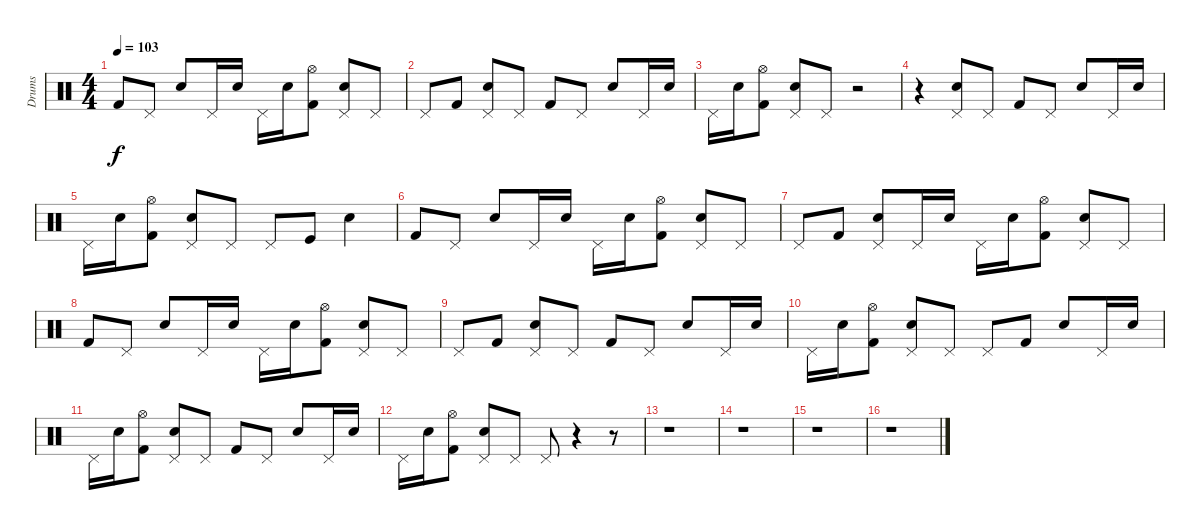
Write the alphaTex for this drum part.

\track ("Drums" "Drums") {instrument percussion}
\staff {score}
\articulation defaults
\ts (4 4)
\tempo 103
\clef neutral
\ks c "Kick (hit) 2".8{dy f} "Pedal Hi-Hat (hit)".8 "Electric Snare (hit)".8 "Pedal Hi-Hat (hit)".16 "Electric Snare (hit)".16 "Pedal Hi-Hat (hit)".16 "Electric Snare (hit)".16
("Hi-Hat (open)" "Kick (hit) 2").8 ("Pedal Hi-Hat (hit)" "Electric Snare (hit)").8 "Pedal Hi-Hat (hit)".8 |
"Pedal Hi-Hat (hit)".8 "Kick (hit) 2".8 ("Pedal Hi-Hat (hit)" "Electric Snare (hit)").8 "Pedal Hi-Hat (hit)".8 "Kick (hit) 2".8 "Pedal Hi-Hat (hit)".8 "Electric Snare (hit)".8 "Pedal Hi-Hat (hit)".16 "Electric Snare (hit)".16 |
"Pedal Hi-Hat (hit)".16 "Electric Snare (hit)".16 ("Hi-Hat (open)" "Kick (hit) 2").8 ("Pedal Hi-Hat (hit)" "Electric Snare (hit)").8 "Pedal Hi-Hat (hit)".8 r.2 |
r.4 ("Pedal Hi-Hat (hit)" "Electric Snare (hit)").8 "Pedal Hi-Hat (hit)".8 "Kick (hit) 2".8 "Pedal Hi-Hat (hit)".8 "Electric Snare (hit)".8 "Pedal Hi-Hat (hit)".16 "Electric Snare (hit)".16 |
"Pedal Hi-Hat (hit)".16 "Electric Snare (hit)".16 ("Hi-Hat (open)" "Kick (hit) 2").8 ("Pedal Hi-Hat (hit)" "Electric Snare (hit)").8 "Pedal Hi-Hat (hit)".8 "Pedal Hi-Hat (hit)".8 "Kick (hit)".8 "Electric Snare (hit)".4 |
"Kick (hit) 2".8 "Pedal Hi-Hat (hit)".8 "Electric Snare (hit)".8 "Pedal Hi-Hat (hit)".16 "Electric Snare (hit)".16 "Pedal Hi-Hat (hit)".16 "Electric Snare (hit)".16 ("Hi-Hat (open)" "Kick (hit) 2").8 ("Pedal Hi-Hat (hit)" "Electric Snare (hit)").8 "Pedal Hi-Hat (hit)".8 |
"Pedal Hi-Hat (hit)".8 "Kick (hit) 2".8 ("Pedal Hi-Hat (hit)" "Electric Snare (hit)").8 "Pedal Hi-Hat (hit)".16 "Electric Snare (hit)".16 "Pedal Hi-Hat (hit)".16 "Electric Snare (hit)".16 ("Hi-Hat (open)" "Kick (hit) 2").8 ("Pedal Hi-Hat (hit)" "Electric Snare (hit)").8 "Pedal Hi-Hat (hit)".8 |
"Kick (hit) 2".8 "Pedal Hi-Hat (hit)".8 "Electric Snare (hit)".8 "Pedal Hi-Hat (hit)".16 "Electric Snare (hit)".16 "Pedal Hi-Hat (hit)".16 "Electric Snare (hit)".16 ("Hi-Hat (open)" "Kick (hit) 2").8 ("Pedal Hi-Hat (hit)" "Electric Snare (hit)").8 "Pedal Hi-Hat (hit)".8 |
"Pedal Hi-Hat (hit)".8 "Kick (hit) 2".8 ("Pedal Hi-Hat (hit)" "Electric Snare (hit)").8 "Pedal Hi-Hat (hit)".8 "Kick (hit) 2".8 "Pedal Hi-Hat (hit)".8 "Electric Snare (hit)".8 "Pedal Hi-Hat (hit)".16 "Electric Snare (hit)".16 |
"Pedal Hi-Hat (hit)".16 "Electric Snare (hit)".16 ("Hi-Hat (open)" "Kick (hit) 2").8 ("Pedal Hi-Hat (hit)" "Electric Snare (hit)").8 "Pedal Hi-Hat (hit)".8 "Pedal Hi-Hat (hit)".8 "Kick (hit) 2".8 "Electric Snare (hit)".8 "Pedal Hi-Hat (hit)".16 "Electric Snare (hit)".16 |
"Pedal Hi-Hat (hit)".16 "Electric Snare (hit)".16 ("Hi-Hat (open)" "Kick (hit) 2").8 ("Pedal Hi-Hat (hit)" "Electric Snare (hit)").8 "Pedal Hi-Hat (hit)".8 "Kick (hit) 2".8 "Pedal Hi-Hat (hit)".8 "Electric Snare (hit)".8 "Pedal Hi-Hat (hit)".16 "Electric Snare (hit)".16 |
"Pedal Hi-Hat (hit)".16 "Electric Snare (hit)".16 ("Hi-Hat (open)" "Kick (hit) 2").8 ("Pedal Hi-Hat (hit)" "Electric Snare (hit)").8 "Pedal Hi-Hat (hit)".8 "Pedal Hi-Hat (hit)".8 r.4 r.8 |
r.1 |
r.1 |
r.1 |
r.1
